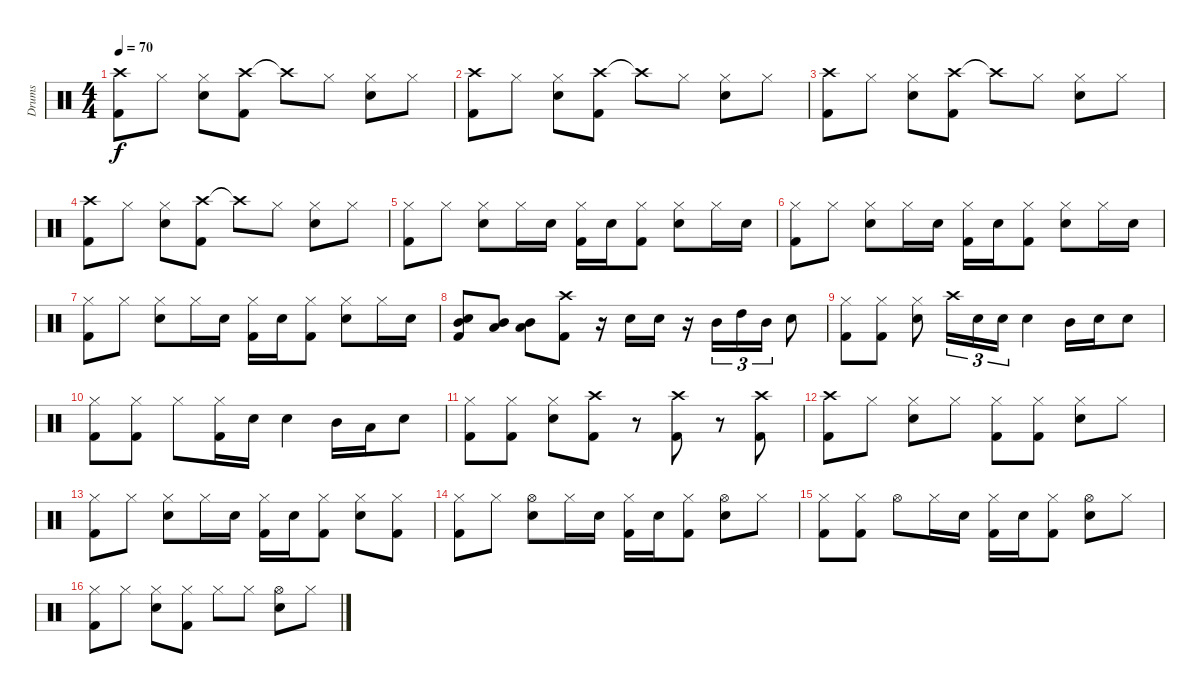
\track ("Drums" "Drums") {instrument percussion}
\staff {score}
\articulation defaults
\ts (4 4)
\tempo 70
\clef neutral
\ks c
("Crash high (hit)" "Kick (hit) 2").8{dy f} "Hi-Hat (closed)".8 ("Hi-Hat (closed)" "Snare (hit) 2").8 ("Crash high (hit)" "Kick (hit) 2").8 "Crash high (hit)"{t}.8 "Hi-Hat (closed)".8 ("Hi-Hat (closed)" "Snare (hit) 2").8 "Hi-Hat (closed)".8 |
("Crash high (hit)" "Kick (hit) 2").8 "Hi-Hat (closed)".8 ("Hi-Hat (closed)" "Snare (hit) 2").8 ("Crash high (hit)" "Kick (hit) 2").8 "Crash high (hit)"{t}.8 "Hi-Hat (closed)".8 ("Hi-Hat (closed)" "Snare (hit) 2").8 "Hi-Hat (closed)".8 |
("Crash high (hit)" "Kick (hit) 2").8 "Hi-Hat (closed)".8 ("Hi-Hat (closed)" "Snare (hit) 2").8 ("Crash high (hit)" "Kick (hit) 2").8 "Crash high (hit)"{t}.8 "Hi-Hat (closed)".8 ("Hi-Hat (closed)" "Snare (hit) 2").8 "Hi-Hat (closed)".8 |
("Crash high (hit)" "Kick (hit) 2").8 "Hi-Hat (closed)".8 ("Hi-Hat (closed)" "Snare (hit) 2").8 ("Crash high (hit)" "Kick (hit) 2").8 "Crash high (hit)"{t}.8 "Hi-Hat (closed)".8 ("Hi-Hat (closed)" "Snare (hit) 2").8 "Hi-Hat (closed)".8 |
("Hi-Hat (closed)" "Kick (hit) 2").8 "Hi-Hat (closed)".8 ("Hi-Hat (closed)" "Snare (hit) 2").8 "Hi-Hat (closed)".16 "Snare (hit) 2".16 ("Hi-Hat (closed)" "Kick (hit) 2").16 "Snare (hit) 2".16 ("Hi-Hat (closed)" "Kick (hit) 2").8 ("Hi-Hat (closed)" "Snare (hit) 2").8 "Hi-Hat (closed)".16 "Snare (hit) 2".16 |
("Hi-Hat (closed)" "Kick (hit) 2").8 "Hi-Hat (closed)".8 ("Hi-Hat (closed)" "Snare (hit) 2").8 "Hi-Hat (closed)".16 "Snare (hit) 2".16 ("Hi-Hat (closed)" "Kick (hit) 2").16 "Snare (hit) 2".16 ("Hi-Hat (closed)" "Kick (hit) 2").8 ("Hi-Hat (closed)" "Snare (hit) 2").8 "Hi-Hat (closed)".16 "Snare (hit) 2".16 |
("Hi-Hat (closed)" "Kick (hit) 2").8 "Hi-Hat (closed)".8 ("Hi-Hat (closed)" "Snare (hit) 2").8 "Hi-Hat (closed)".16 "Snare (hit) 2".16 ("Hi-Hat (closed)" "Kick (hit) 2").16 "Snare (hit) 2".16 ("Hi-Hat (closed)" "Kick (hit) 2").8 ("Hi-Hat (closed)" "Snare (hit) 2").8 "Hi-Hat (closed)".16 "Snare (hit) 2".16 |
("Mid Tom (hit)" "Snare (hit) 2" "Kick (hit) 2").8 ("Mid Tom (hit)" "Low Tom (hit)").8 ("Mid Tom (hit)" "Low Tom (hit)").8 ("Crash high (hit)" "Kick (hit) 2").8 r.16 "Snare (hit) 2".16 "Snare (hit) 2".16 r.16 "Mid Tom (hit)".16{tu (3 2)} "High Tom (hit)".16{tu (3 2)} "Mid Tom (hit)".16{tu (3 2)} "Snare (hit) 2".8 |
("Hi-Hat (closed)" "Kick (hit) 2").8 ("Hi-Hat (closed)" "Kick (hit) 2").8 ("Hi-Hat (closed)" "Snare (hit) 2").8 "Crash high (hit)".16{tu (3 2)} "Snare (hit) 2".16{tu (3 2)} "Snare (hit) 2".16{tu (3 2)} "Snare (hit) 2".4 "Mid Tom (hit)".16 "Snare (hit) 2".16 "Snare (hit) 2".8 |
("Hi-Hat (closed)" "Kick (hit) 2").8 ("Hi-Hat (closed)" "Kick (hit) 2").8 "Hi-Hat (closed)".8 ("Hi-Hat (closed)" "Kick (hit) 2").16 "Snare (hit) 2".16 "Snare (hit) 2".4 "Mid Tom (hit)".16 "Low Tom (hit)".16 "Snare (hit) 2".8 |
("Hi-Hat (closed)" "Kick (hit) 2").8 ("Hi-Hat (closed)" "Kick (hit) 2").8 ("Hi-Hat (closed)" "Snare (hit) 2").8 ("Crash high (hit)" "Kick (hit) 2").8 r.8 ("Crash high (hit)" "Kick (hit) 2").8 r.8 ("Crash high (hit)" "Kick (hit) 2").8 |
("Crash high (hit)" "Kick (hit) 2").8 "Hi-Hat (closed)".8 ("Hi-Hat (closed)" "Snare (hit) 2").8 "Hi-Hat (closed)".8 ("Hi-Hat (closed)" "Kick (hit) 2").8 ("Hi-Hat (closed)" "Kick (hit) 2").8 ("Hi-Hat (closed)" "Snare (hit) 2").8 "Hi-Hat (closed)".8 |
("Hi-Hat (closed)" "Kick (hit) 2").8 "Hi-Hat (closed)".8 ("Hi-Hat (closed)" "Snare (hit) 2").8 "Hi-Hat (closed)".16 "Snare (hit) 2".16 ("Hi-Hat (closed)" "Kick (hit) 2").16 "Snare (hit) 2".16 ("Hi-Hat (closed)" "Kick (hit) 2").8 ("Hi-Hat (closed)" "Snare (hit) 2").8 ("Hi-Hat (closed)" "Kick (hit) 2").8 |
("Hi-Hat (closed)" "Kick (hit) 2").8 "Hi-Hat (closed)".8 ("Hi-Hat (open)" "Snare (hit) 2").8 "Hi-Hat (closed)".16 "Snare (hit) 2".16 ("Hi-Hat (closed)" "Kick (hit) 2").16 "Snare (hit) 2".16 ("Hi-Hat (closed)" "Kick (hit) 2").8 ("Hi-Hat (open)" "Snare (hit) 2").8 "Hi-Hat (closed)".8 |
("Hi-Hat (closed)" "Kick (hit) 2").8 ("Hi-Hat (closed)" "Kick (hit) 2").8 "Hi-Hat (open)".8 "Hi-Hat (closed)".16 "Snare (hit) 2".16 ("Hi-Hat (closed)" "Kick (hit) 2").16 "Snare (hit) 2".16 ("Hi-Hat (closed)" "Kick (hit) 2").8 ("Hi-Hat (open)" "Snare (hit) 2").8 "Hi-Hat (closed)".8 |
("Hi-Hat (closed)" "Kick (hit) 2").8 "Hi-Hat (closed)".8 ("Hi-Hat (closed)" "Snare (hit) 2").8 ("Hi-Hat (closed)" "Kick (hit) 2").8 "Hi-Hat (closed)".8 "Hi-Hat (closed)".8 ("Hi-Hat (open)" "Snare (hit) 2").8 "Hi-Hat (closed)".8
